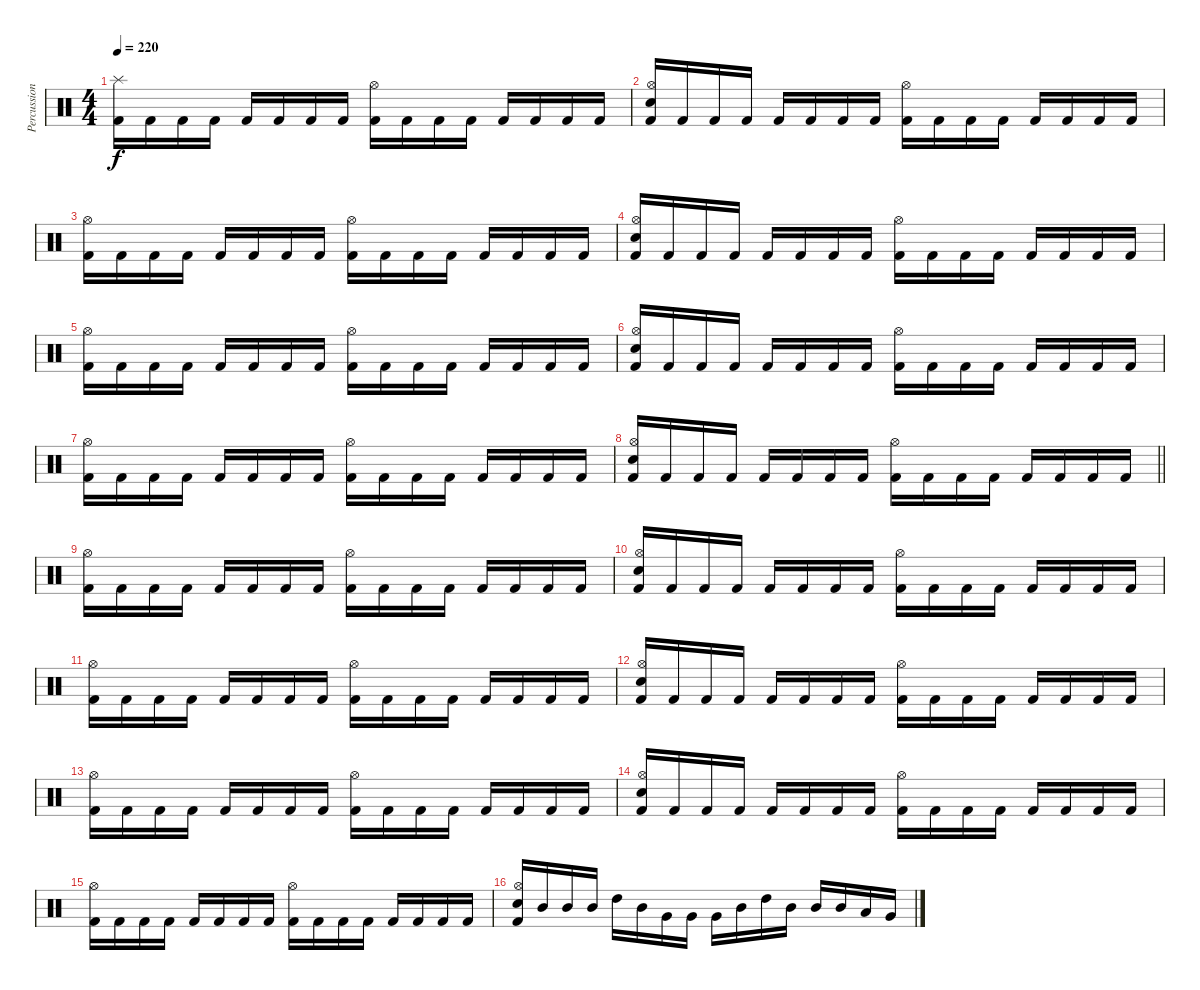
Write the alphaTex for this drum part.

\track ("Percussion" "Percussion") {instrument percussion}
\staff {score}
\articulation defaults
\ts (4 4)
\tempo 220
\clef neutral
\ks c
("Splash (hit)" "Kick (hit) 2").16{dy f} "Kick (hit) 2".16 "Kick (hit) 2".16 "Kick (hit) 2".16 "Kick (hit) 2".16 "Kick (hit) 2".16 "Kick (hit) 2".16 "Kick (hit) 2".16 ("Hi-Hat (open)" "Kick (hit) 2").16 "Kick (hit) 2".16 "Kick (hit) 2".16 "Kick (hit) 2".16 "Kick (hit) 2".16 "Kick (hit) 2".16 "Kick (hit) 2".16 "Kick (hit) 2".16 |
("Hi-Hat (open)" "Electric Snare (hit)" "Kick (hit) 2").16 "Kick (hit) 2".16 "Kick (hit) 2".16 "Kick (hit) 2".16 "Kick (hit) 2".16 "Kick (hit) 2".16 "Kick (hit) 2".16 "Kick (hit) 2".16 ("Hi-Hat (open)" "Kick (hit) 2").16 "Kick (hit) 2".16 "Kick (hit) 2".16 "Kick (hit) 2".16 "Kick (hit) 2".16 "Kick (hit) 2".16 "Kick (hit) 2".16 "Kick (hit) 2".16 |
("Hi-Hat (open)" "Kick (hit) 2").16 "Kick (hit) 2".16 "Kick (hit) 2".16 "Kick (hit) 2".16 "Kick (hit) 2".16 "Kick (hit) 2".16 "Kick (hit) 2".16 "Kick (hit) 2".16 ("Hi-Hat (open)" "Kick (hit) 2").16 "Kick (hit) 2".16 "Kick (hit) 2".16 "Kick (hit) 2".16 "Kick (hit) 2".16 "Kick (hit) 2".16 "Kick (hit) 2".16 "Kick (hit) 2".16 |
("Hi-Hat (open)" "Electric Snare (hit)" "Kick (hit) 2").16 "Kick (hit) 2".16 "Kick (hit) 2".16 "Kick (hit) 2".16 "Kick (hit) 2".16 "Kick (hit) 2".16 "Kick (hit) 2".16 "Kick (hit) 2".16 ("Hi-Hat (open)" "Kick (hit) 2").16 "Kick (hit) 2".16 "Kick (hit) 2".16 "Kick (hit) 2".16 "Kick (hit) 2".16 "Kick (hit) 2".16 "Kick (hit) 2".16 "Kick (hit) 2".16 |
("Hi-Hat (open)" "Kick (hit) 2").16 "Kick (hit) 2".16 "Kick (hit) 2".16 "Kick (hit) 2".16 "Kick (hit) 2".16 "Kick (hit) 2".16 "Kick (hit) 2".16 "Kick (hit) 2".16 ("Hi-Hat (open)" "Kick (hit) 2").16 "Kick (hit) 2".16 "Kick (hit) 2".16 "Kick (hit) 2".16 "Kick (hit) 2".16 "Kick (hit) 2".16 "Kick (hit) 2".16 "Kick (hit) 2".16 |
("Hi-Hat (open)" "Electric Snare (hit)" "Kick (hit) 2").16 "Kick (hit) 2".16 "Kick (hit) 2".16 "Kick (hit) 2".16 "Kick (hit) 2".16 "Kick (hit) 2".16 "Kick (hit) 2".16 "Kick (hit) 2".16 ("Hi-Hat (open)" "Kick (hit) 2").16 "Kick (hit) 2".16 "Kick (hit) 2".16 "Kick (hit) 2".16 "Kick (hit) 2".16 "Kick (hit) 2".16 "Kick (hit) 2".16 "Kick (hit) 2".16 |
("Hi-Hat (open)" "Kick (hit) 2").16 "Kick (hit) 2".16 "Kick (hit) 2".16 "Kick (hit) 2".16 "Kick (hit) 2".16 "Kick (hit) 2".16 "Kick (hit) 2".16 "Kick (hit) 2".16 ("Hi-Hat (open)" "Kick (hit) 2").16 "Kick (hit) 2".16 "Kick (hit) 2".16 "Kick (hit) 2".16 "Kick (hit) 2".16 "Kick (hit) 2".16 "Kick (hit) 2".16 "Kick (hit) 2".16 |
\barLineRight lightlight
("Hi-Hat (open)" "Electric Snare (hit)" "Kick (hit) 2").16 "Kick (hit) 2".16 "Kick (hit) 2".16 "Kick (hit) 2".16 "Kick (hit) 2".16 "Kick (hit) 2".16 "Kick (hit) 2".16 "Kick (hit) 2".16 ("Hi-Hat (open)" "Kick (hit) 2").16 "Kick (hit) 2".16 "Kick (hit) 2".16 "Kick (hit) 2".16 "Kick (hit) 2".16 "Kick (hit) 2".16 "Kick (hit) 2".16 "Kick (hit) 2".16 |
("Hi-Hat (open)" "Kick (hit) 2").16 "Kick (hit) 2".16 "Kick (hit) 2".16 "Kick (hit) 2".16 "Kick (hit) 2".16 "Kick (hit) 2".16 "Kick (hit) 2".16 "Kick (hit) 2".16 ("Hi-Hat (open)" "Kick (hit) 2").16 "Kick (hit) 2".16 "Kick (hit) 2".16 "Kick (hit) 2".16 "Kick (hit) 2".16 "Kick (hit) 2".16 "Kick (hit) 2".16 "Kick (hit) 2".16 |
("Hi-Hat (open)" "Electric Snare (hit)" "Kick (hit) 2").16 "Kick (hit) 2".16 "Kick (hit) 2".16 "Kick (hit) 2".16 "Kick (hit) 2".16 "Kick (hit) 2".16 "Kick (hit) 2".16 "Kick (hit) 2".16 ("Hi-Hat (open)" "Kick (hit) 2").16 "Kick (hit) 2".16 "Kick (hit) 2".16 "Kick (hit) 2".16 "Kick (hit) 2".16 "Kick (hit) 2".16 "Kick (hit) 2".16 "Kick (hit) 2".16 |
("Hi-Hat (open)" "Kick (hit) 2").16 "Kick (hit) 2".16 "Kick (hit) 2".16 "Kick (hit) 2".16 "Kick (hit) 2".16 "Kick (hit) 2".16 "Kick (hit) 2".16 "Kick (hit) 2".16 ("Hi-Hat (open)" "Kick (hit) 2").16 "Kick (hit) 2".16 "Kick (hit) 2".16 "Kick (hit) 2".16 "Kick (hit) 2".16 "Kick (hit) 2".16 "Kick (hit) 2".16 "Kick (hit) 2".16 |
("Hi-Hat (open)" "Electric Snare (hit)" "Kick (hit) 2").16 "Kick (hit) 2".16 "Kick (hit) 2".16 "Kick (hit) 2".16 "Kick (hit) 2".16 "Kick (hit) 2".16 "Kick (hit) 2".16 "Kick (hit) 2".16 ("Hi-Hat (open)" "Kick (hit) 2").16 "Kick (hit) 2".16 "Kick (hit) 2".16 "Kick (hit) 2".16 "Kick (hit) 2".16 "Kick (hit) 2".16 "Kick (hit) 2".16 "Kick (hit) 2".16 |
("Hi-Hat (open)" "Kick (hit) 2").16 "Kick (hit) 2".16 "Kick (hit) 2".16 "Kick (hit) 2".16 "Kick (hit) 2".16 "Kick (hit) 2".16 "Kick (hit) 2".16 "Kick (hit) 2".16 ("Hi-Hat (open)" "Kick (hit) 2").16 "Kick (hit) 2".16 "Kick (hit) 2".16 "Kick (hit) 2".16 "Kick (hit) 2".16 "Kick (hit) 2".16 "Kick (hit) 2".16 "Kick (hit) 2".16 |
("Hi-Hat (open)" "Electric Snare (hit)" "Kick (hit) 2").16 "Kick (hit) 2".16 "Kick (hit) 2".16 "Kick (hit) 2".16 "Kick (hit) 2".16 "Kick (hit) 2".16 "Kick (hit) 2".16 "Kick (hit) 2".16 ("Hi-Hat (open)" "Kick (hit) 2").16 "Kick (hit) 2".16 "Kick (hit) 2".16 "Kick (hit) 2".16 "Kick (hit) 2".16 "Kick (hit) 2".16 "Kick (hit) 2".16 "Kick (hit) 2".16 |
("Hi-Hat (open)" "Kick (hit) 2").16 "Kick (hit) 2".16 "Kick (hit) 2".16 "Kick (hit) 2".16 "Kick (hit) 2".16 "Kick (hit) 2".16 "Kick (hit) 2".16 "Kick (hit) 2".16 ("Hi-Hat (open)" "Kick (hit) 2").16 "Kick (hit) 2".16 "Kick (hit) 2".16 "Kick (hit) 2".16 "Kick (hit) 2".16 "Kick (hit) 2".16 "Kick (hit) 2".16 "Kick (hit) 2".16 |
("Hi-Hat (open)" "Electric Snare (hit)" "Kick (hit) 2").16 "Mid Tom (hit)".16 "Mid Tom (hit)".16 "Mid Tom (hit)".16 "High Tom (hit)".16 "Mid Tom (hit)".16 "Very Low Tom (hit)".16 "Very Low Tom (hit)".16 "Very Low Tom (hit)".16 "Mid Tom (hit)".16 "High Tom (hit)".16 "Mid Tom (hit)".16 "Mid Tom (hit)".16 "Mid Tom (hit)".16 "Low Tom (hit)".16 "Very Low Tom (hit)".16
